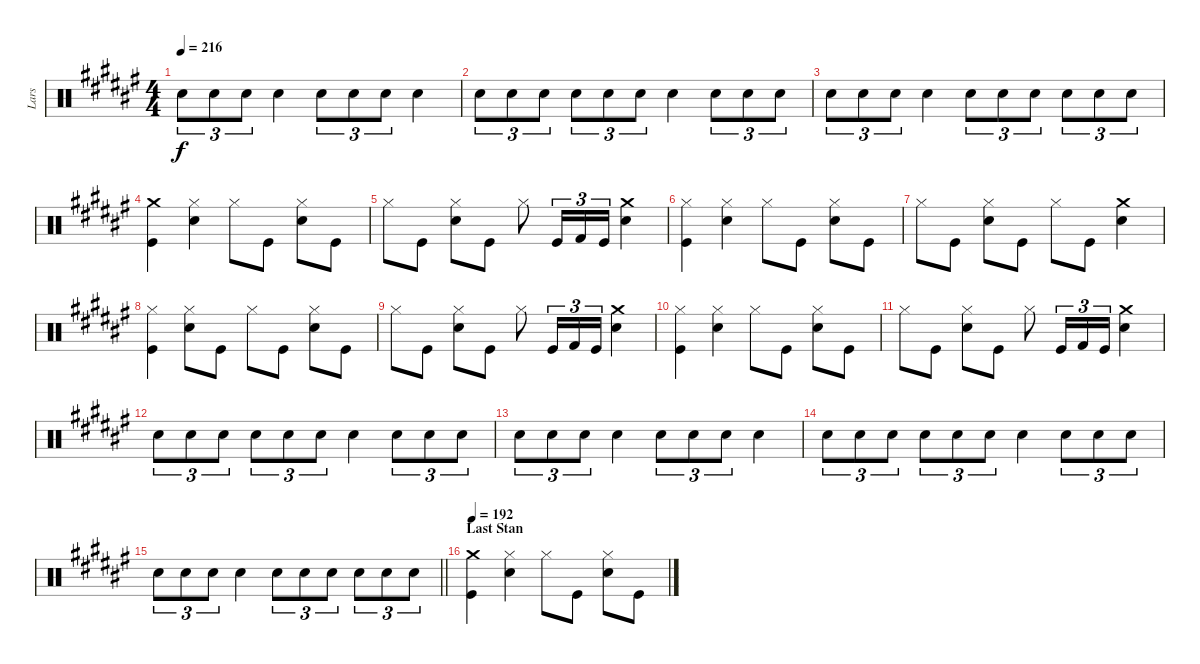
\track ("Lars" "Lars") {instrument percussion}
\staff {score}
\articulation defaults
\ts (4 4)
\tempo 216
\clef neutral
\ks f# "Snare (hit) 2".8{tu (3 2) dy f} "Snare (hit) 2".8{tu (3 2)} "Snare (hit) 2".8{tu (3 2)} "Snare (hit) 2".4 "Snare (hit) 2".8{tu (3 2)} "Snare (hit) 2".8{tu (3 2)} "Snare (hit) 2".8{tu (3 2)} "Snare (hit) 2".4
|
"Snare (hit) 2".8{tu (3 2)} "Snare (hit) 2".8{tu (3 2)} "Snare (hit) 2".8{tu (3 2)} "Snare (hit) 2".8{tu (3 2)} "Snare (hit) 2".8{tu (3 2)} "Snare (hit) 2".8{tu (3 2)} "Snare (hit) 2".4 "Snare (hit) 2".8{tu (3 2)} "Snare (hit) 2".8{tu (3 2)} "Snare (hit) 2".8{tu (3 2)} |
"Snare (hit) 2".8{tu (3 2)} "Snare (hit) 2".8{tu (3 2)} "Snare (hit) 2".8{tu (3 2)} "Snare (hit) 2".4 "Snare (hit) 2".8{tu (3 2)} "Snare (hit) 2".8{tu (3 2)} "Snare (hit) 2".8{tu (3 2)} "Snare (hit) 2".8{tu (3 2)} "Snare (hit) 2".8{tu (3 2)} "Snare (hit) 2".8{tu (3 2)} |
("Kick (hit)" "Crash medium (hit)").4 ("Hi-Hat (closed)" "Snare (hit) 2").4 "Hi-Hat (closed)".8 "Kick (hit)".8 ("Hi-Hat (closed)" "Snare (hit) 2").8 "Kick (hit)".8 |
"Hi-Hat (closed)".8 "Kick (hit)".8 ("Snare (hit) 2" "Hi-Hat (closed)").8 "Kick (hit)".8 "Hi-Hat (closed)".8 "Kick (hit)".16{tu (3 2)} "Kick (hit) 2".16{tu (3 2)} "Kick (hit)".16{tu (3 2)} ("Crash medium (hit)" "Snare (hit) 2").4 |
("Hi-Hat (closed)" "Kick (hit)").4 ("Snare (hit) 2" "Hi-Hat (closed)").4 "Hi-Hat (closed)".8 "Kick (hit)".8 ("Snare (hit) 2" "Hi-Hat (closed)").8 "Kick (hit)".8 |
"Hi-Hat (closed)".8 "Kick (hit)".8 ("Snare (hit) 2" "Hi-Hat (closed)").8 "Kick (hit)".8 "Hi-Hat (closed)".8 "Kick (hit)".8 ("Crash medium (hit)" "Snare (hit) 2").4 |
("Kick (hit)" "Hi-Hat (closed)").4 ("Snare (hit) 2" "Hi-Hat (closed)").8 "Kick (hit)".8 "Hi-Hat (closed)".8 "Kick (hit)".8 ("Hi-Hat (closed)" "Snare (hit) 2").8 "Kick (hit)".8 |
"Hi-Hat (closed)".8 "Kick (hit)".8 ("Snare (hit) 2" "Hi-Hat (closed)").8 "Kick (hit)".8 "Hi-Hat (closed)".8 "Kick (hit)".16{tu (3 2)} "Kick (hit) 2".16{tu (3 2)} "Kick (hit)".16{tu (3 2)} ("Crash medium (hit)" "Snare (hit) 2").4 |
("Hi-Hat (closed)" "Kick (hit)").4 ("Snare (hit) 2" "Hi-Hat (closed)").4 "Hi-Hat (closed)".8 "Kick (hit)".8 ("Snare (hit) 2" "Hi-Hat (closed)").8 "Kick (hit)".8 |
"Hi-Hat (closed)".8 "Kick (hit)".8 ("Snare (hit) 2" "Hi-Hat (closed)").8 "Kick (hit)".8 "Hi-Hat (closed)".8 "Kick (hit)".16{tu (3 2)} "Kick (hit) 2".16{tu (3 2)} "Kick (hit)".16{tu (3 2)} ("Crash medium (hit)" "Snare (hit) 2").4 |
"Snare (hit) 2".8{tu (3 2)} "Snare (hit) 2".8{tu (3 2)} "Snare (hit) 2".8{tu (3 2)} "Snare (hit) 2".8{tu (3 2)} "Snare (hit) 2".8{tu (3 2)} "Snare (hit) 2".8{tu (3 2)} "Snare (hit) 2".4 "Snare (hit) 2".8{tu (3 2)} "Snare (hit) 2".8{tu (3 2)} "Snare (hit) 2".8{tu (3 2)} |
"Snare (hit) 2".8{tu (3 2)} "Snare (hit) 2".8{tu (3 2)} "Snare (hit) 2".8{tu (3 2)} "Snare (hit) 2".4 "Snare (hit) 2".8{tu (3 2)} "Snare (hit) 2".8{tu (3 2)} "Snare (hit) 2".8{tu (3 2)} "Snare (hit) 2".4 |
"Snare (hit) 2".8{tu (3 2)} "Snare (hit) 2".8{tu (3 2)} "Snare (hit) 2".8{tu (3 2)} "Snare (hit) 2".8{tu (3 2)} "Snare (hit) 2".8{tu (3 2)} "Snare (hit) 2".8{tu (3 2)} "Snare (hit) 2".4 "Snare (hit) 2".8{tu (3 2)} "Snare (hit) 2".8{tu (3 2)} "Snare (hit) 2".8{tu (3 2)} |
\barLineRight lightlight "Snare (hit) 2".8{tu (3 2)} "Snare (hit) 2".8{tu (3 2)} "Snare (hit) 2".8{tu (3 2)} "Snare (hit) 2".4 "Snare (hit) 2".8{tu (3 2)} "Snare (hit) 2".8{tu (3 2)} "Snare (hit) 2".8{tu (3 2)} "Snare (hit) 2".8{tu (3 2)} "Snare (hit) 2".8{tu (3 2)} "Snare (hit) 2".8{tu (3 2)}
|
\section ("" "Last Stan")
\tempo 192
("Crash medium (hit)" "Kick (hit)").4 ("Hi-Hat (closed)" "Snare (hit) 2").4 "Hi-Hat (closed)".8 "Kick (hit)".8 ("Snare (hit) 2" "Hi-Hat (closed)").8 "Kick (hit)".8
